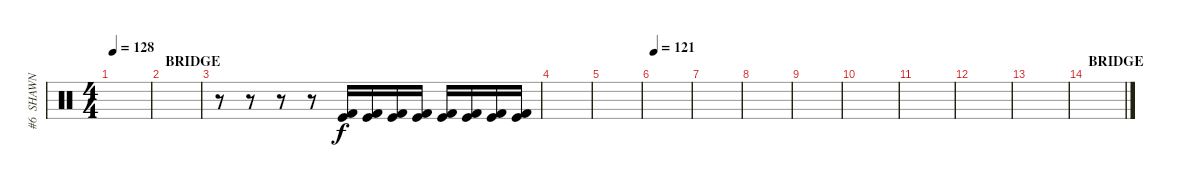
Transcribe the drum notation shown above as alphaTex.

\track ("#6  SHAWN \"CLOWN\" CRAHAN" "#6  SHAWN ") {instrument percussion}
\staff {score}
\articulation defaults
\ts (4 4)
\tempo 128
\clef neutral
\ks c
|
\section ("" "BRIDGE")
|
r.8 r.8 r.8 r.8 ("Kick (hit) 2" "Kick (hit)").16 ("Kick (hit) 2" "Kick (hit)").16 ("Kick (hit) 2" "Kick (hit)").16 ("Kick (hit) 2" "Kick (hit)").16 ("Kick (hit) 2" "Kick (hit)").16 ("Kick (hit) 2" "Kick (hit)").16 ("Kick (hit) 2" "Kick (hit)").16 ("Kick (hit) 2" "Kick (hit)").16 |
|
|
\section ("" "")
\tempo 121
|
|
|
|
|
|
|
|
\section ("" "BRIDGE")
